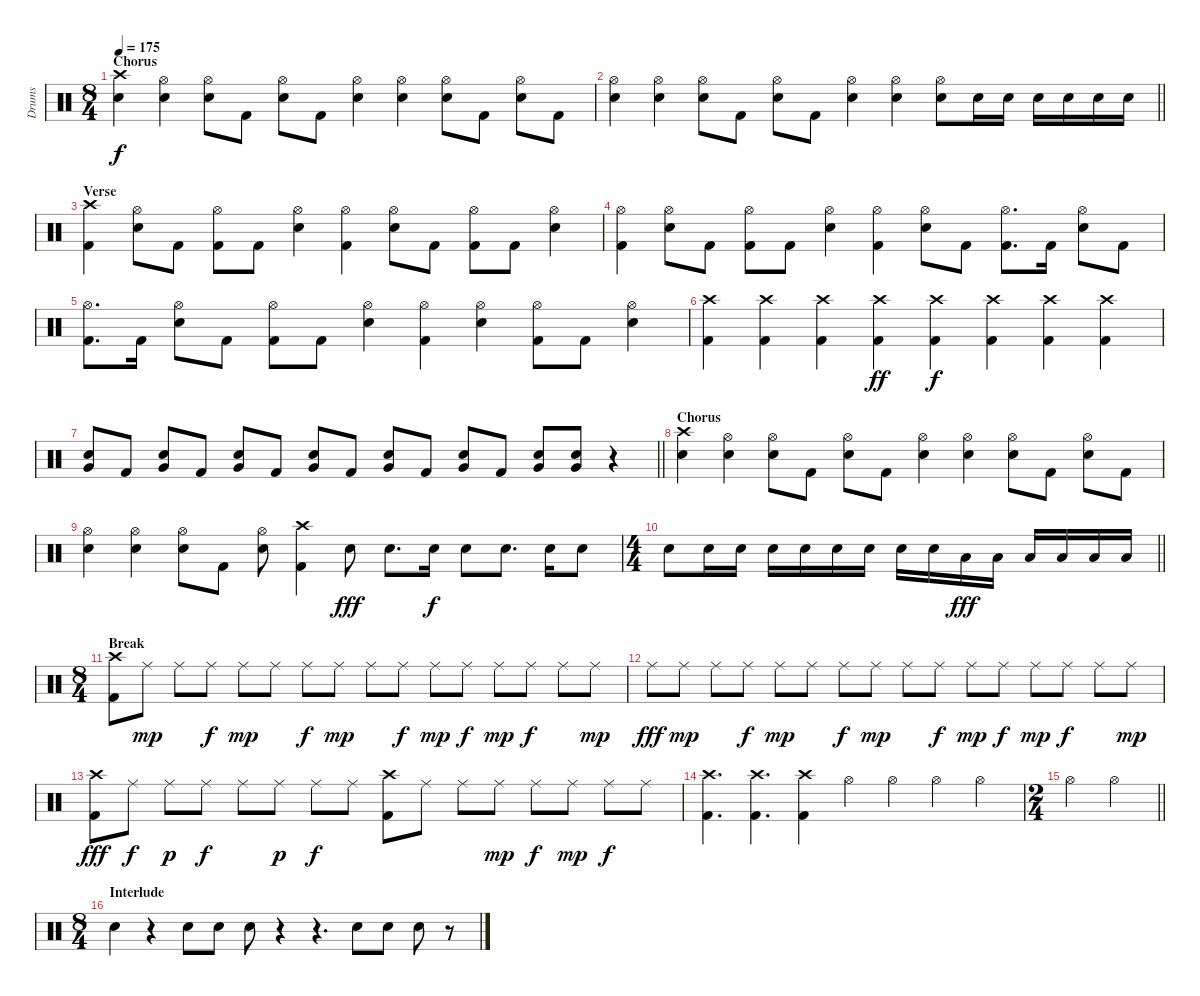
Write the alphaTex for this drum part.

\track ("Drums" "Drums") {instrument percussion}
\staff {score}
\articulation defaults
\ts (8 4)
\section ("" "Chorus")
\tempo 175
\clef neutral
\ks c
("Crash high (hit)" "Snare (hit) 2").4{dy f} ("Hi-Hat (open)" "Snare (hit) 2").4 ("Hi-Hat (open)" "Snare (hit) 2").8 "Kick (hit) 2".8 ("Hi-Hat (open)" "Snare (hit) 2").8 "Kick (hit) 2".8 ("Hi-Hat (open)" "Snare (hit) 2").4 ("Hi-Hat (open)" "Snare (hit) 2").4 ("Hi-Hat (open)" "Snare (hit) 2").8 "Kick (hit) 2".8 ("Hi-Hat (open)" "Snare (hit) 2").8 "Kick (hit) 2".8 |
\barLineRight lightlight
("Hi-Hat (open)" "Snare (hit) 2").4 ("Hi-Hat (open)" "Snare (hit) 2").4 ("Hi-Hat (open)" "Snare (hit) 2").8 "Kick (hit) 2".8 ("Hi-Hat (open)" "Snare (hit) 2").8 "Kick (hit) 2".8 ("Hi-Hat (open)" "Snare (hit) 2").4 ("Hi-Hat (open)" "Snare (hit) 2").4 ("Hi-Hat (open)" "Snare (hit) 2").8 "Snare (hit) 2".16 "Snare (hit) 2".16 "Snare (hit) 2".16 "Snare (hit) 2".16 "Snare (hit) 2".16 "Snare (hit) 2".16 |
\section ("" "Verse")
("Crash high (hit)" "Kick (hit) 2").4 ("Hi-Hat (open)" "Snare (hit) 2").8 "Kick (hit) 2".8 ("Hi-Hat (open)" "Kick (hit) 2").8 "Kick (hit) 2".8 ("Hi-Hat (open)" "Snare (hit) 2").4 ("Hi-Hat (open)" "Kick (hit) 2").4 ("Hi-Hat (open)" "Snare (hit) 2").8 "Kick (hit) 2".8 ("Hi-Hat (open)" "Kick (hit) 2").8 "Kick (hit) 2".8 ("Hi-Hat (open)" "Snare (hit) 2").4 |
("Hi-Hat (open)" "Kick (hit) 2").4 ("Hi-Hat (open)" "Snare (hit) 2").8 "Kick (hit) 2".8 ("Hi-Hat (open)" "Kick (hit) 2").8 "Kick (hit) 2".8 ("Hi-Hat (open)" "Snare (hit) 2").4 ("Hi-Hat (open)" "Kick (hit) 2").4 ("Hi-Hat (open)" "Snare (hit) 2").8 "Kick (hit) 2".8 ("Hi-Hat (open)" "Kick (hit) 2").8{d} "Kick (hit) 2".16 ("Hi-Hat (open)" "Snare (hit) 2").8 "Kick (hit) 2".8 |
("Hi-Hat (open)" "Kick (hit) 2").8{d} "Kick (hit) 2".16 ("Hi-Hat (open)" "Snare (hit) 2").8 "Kick (hit) 2".8 ("Hi-Hat (open)" "Kick (hit) 2").8 "Kick (hit) 2".8 ("Hi-Hat (open)" "Snare (hit) 2").4 ("Hi-Hat (open)" "Kick (hit) 2").4 ("Hi-Hat (open)" "Snare (hit) 2").4 ("Hi-Hat (open)" "Kick (hit) 2").8 "Kick (hit) 2".8 ("Hi-Hat (open)" "Snare (hit) 2").4 |
("Crash high (hit)" "Kick (hit) 2").4 ("Crash high (hit)" "Kick (hit) 2").4 ("Crash high (hit)" "Kick (hit) 2").4 ("Crash high (hit)" "Kick (hit) 2").4{dy ff} ("Crash high (hit)" "Kick (hit) 2").4{dy f} ("Crash high (hit)" "Kick (hit) 2").4 ("Crash high (hit)" "Kick (hit) 2").4 ("Crash high (hit)" "Kick (hit) 2").4 |
\barLineRight lightlight
("Very Low Tom (hit)" "Snare (hit) 2").8 "Kick (hit) 2".8 ("Very Low Tom (hit)" "Snare (hit) 2").8 "Kick (hit) 2".8 ("Very Low Tom (hit)" "Snare (hit) 2").8 "Kick (hit) 2".8 ("Very Low Tom (hit)" "Snare (hit) 2").8 "Kick (hit) 2".8 ("Very Low Tom (hit)" "Snare (hit) 2").8 "Kick (hit) 2".8 ("Very Low Tom (hit)" "Snare (hit) 2").8 "Kick (hit) 2".8 ("Very Low Tom (hit)" "Snare (hit) 2").8 ("Very Low Tom (hit)" "Snare (hit) 2").8 r.4 |
\section ("" "Chorus")
("Crash high (hit)" "Snare (hit) 2").4 ("Hi-Hat (open)" "Snare (hit) 2").4 ("Hi-Hat (open)" "Snare (hit) 2").8 "Kick (hit) 2".8 ("Hi-Hat (open)" "Snare (hit) 2").8 "Kick (hit) 2".8 ("Hi-Hat (open)" "Snare (hit) 2").4 ("Hi-Hat (open)" "Snare (hit) 2").4 ("Hi-Hat (open)" "Snare (hit) 2").8 "Kick (hit) 2".8 ("Hi-Hat (open)" "Snare (hit) 2").8 "Kick (hit) 2".8 |
("Hi-Hat (open)" "Snare (hit) 2").4 ("Hi-Hat (open)" "Snare (hit) 2").4 ("Hi-Hat (open)" "Snare (hit) 2").8 "Kick (hit) 2".8 ("Hi-Hat (open)" "Snare (hit) 2").8 ("Crash high (hit)" "Kick (hit) 2").4 "Snare (hit) 2".8{dy fff} "Snare (hit) 2".8{d} "Snare (hit) 2".16{dy f} "Snare (hit) 2".8 "Snare (hit) 2".8{d} "Snare (hit) 2".16 "Snare (hit) 2".8 |
\ts (4 4)
\barLineRight lightlight "Snare (hit) 2".8 "Snare (hit) 2".16 "Snare (hit) 2".16 "Snare (hit) 2".16 "Snare (hit) 2".16 "Snare (hit) 2".16 "Snare (hit) 2".16 "Snare (hit) 2".16 "Snare (hit) 2".16 "Low Tom (hit)".16{dy fff} "Low Tom (hit)".16 "Low Tom (hit)".16 "Low Tom (hit)".16 "Low Tom (hit)".16 "Low Tom (hit)".16
|
\ts (8 4)
\section ("" "Break")
("Crash high (hit)" "Kick (hit) 2").8 "Ride (middle)".8{dy mp} "Ride (middle)".8 "Ride (middle)".8{dy f} "Ride (middle)".8{dy mp} "Ride (middle)".8 "Ride (middle)".8{dy f} "Ride (middle)".8{dy mp} "Ride (middle)".8 "Ride (middle)".8{dy f} "Ride (middle)".8{dy mp} "Ride (middle)".8{dy f} "Ride (middle)".8{dy mp} "Ride (middle)".8{dy f} "Ride (middle)".8 "Ride (middle)".8{dy mp} |
"Ride (middle)".8{dy fff} "Ride (middle)".8{dy mp} "Ride (middle)".8 "Ride (middle)".8{dy f} "Ride (middle)".8{dy mp} "Ride (middle)".8 "Ride (middle)".8{dy f} "Ride (middle)".8{dy mp} "Ride (middle)".8 "Ride (middle)".8{dy f} "Ride (middle)".8{dy mp} "Ride (middle)".8{dy f} "Ride (middle)".8{dy mp} "Ride (middle)".8{dy f} "Ride (middle)".8 "Ride (middle)".8{dy mp} |
("Crash high (hit)" "Kick (hit) 2").8{dy fff} "Ride (middle)".8{dy f} "Ride (middle)".8{dy p} "Ride (middle)".8{dy f} "Ride (middle)".8 "Ride (middle)".8{dy p} "Ride (middle)".8{dy f} "Ride (middle)".8 ("Crash high (hit)" "Kick (hit) 2").8 "Ride (middle)".8 "Ride (middle)".8 "Ride (middle)".8{dy mp} "Ride (middle)".8{dy f} "Ride (middle)".8{dy mp} "Ride (middle)".8{dy f} "Ride (middle)".8 |
("Crash high (hit)" "Kick (hit) 2").4{d} ("Crash high (hit)" "Kick (hit) 2").4{d} ("Crash high (hit)" "Kick (hit) 2").4 "Hi-Hat (open)".4 "Hi-Hat (open)".4 "Hi-Hat (open)".4 "Hi-Hat (open)".4 |
\ts (2 4)
\barLineRight lightlight "Hi-Hat (open)".4 "Hi-Hat (open)".4
|
\ts (8 4)
\section ("" "Interlude")
"Snare (hit) 2".4 r.4 "Snare (hit) 2".8 "Snare (hit) 2".8 "Snare (hit) 2".8 r.4 r.4{d} "Snare (hit) 2".8 "Snare (hit) 2".8 "Snare (hit) 2".8 r.8
